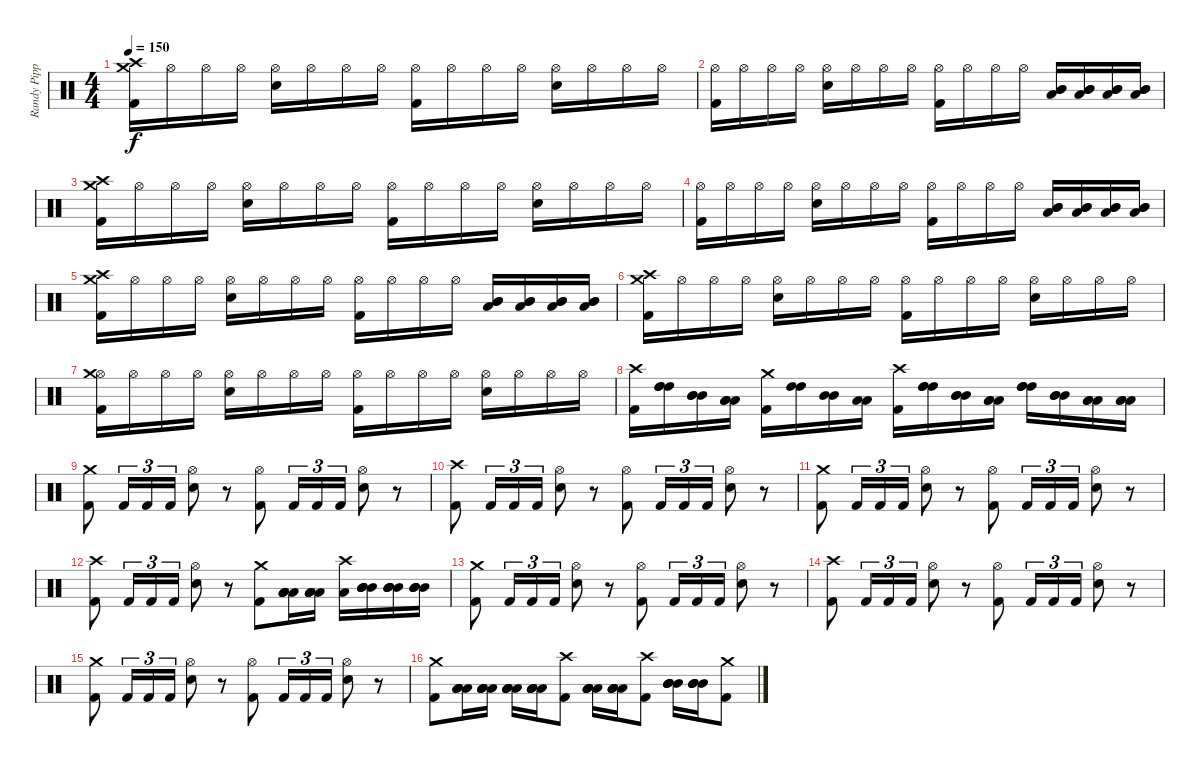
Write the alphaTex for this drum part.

\track ("Randy Pipper" "Randy Pipp") {instrument percussion}
\staff {score}
\articulation defaults
\ts (4 4)
\tempo 150
\clef neutral
\ks c
("Crash medium (hit)" "Kick (hit) 2" "Crash high (hit)").16{dy f} "Hi-Hat (open)".16 "Hi-Hat (open)".16 "Hi-Hat (open)".16 ("Hi-Hat (open)" "Snare (hit) 2").16 "Hi-Hat (open)".16 "Hi-Hat (open)".16 "Hi-Hat (open)".16 ("Hi-Hat (open)" "Kick (hit) 2").16 "Hi-Hat (open)".16 "Hi-Hat (open)".16 "Hi-Hat (open)".16 ("Hi-Hat (open)" "Snare (hit) 2").16 "Hi-Hat (open)".16 "Hi-Hat (open)".16 "Hi-Hat (open)".16 |
("Hi-Hat (open)" "Kick (hit) 2").16 "Hi-Hat (open)".16 "Hi-Hat (open)".16 "Hi-Hat (open)".16 ("Hi-Hat (open)" "Snare (hit) 2").16 "Hi-Hat (open)".16 "Hi-Hat (open)".16 "Hi-Hat (open)".16 ("Hi-Hat (open)" "Kick (hit) 2").16 "Hi-Hat (open)".16 "Hi-Hat (open)".16 "Hi-Hat (open)".16 ("Low Tom (hit)" "Mid Tom (hit)" "Mid Tom (hit)").16 ("Low Tom (hit)" "Mid Tom (hit)" "Mid Tom (hit)").16 ("Low Tom (hit)" "Mid Tom (hit)" "Mid Tom (hit)").16 ("Low Tom (hit)" "Mid Tom (hit)" "Mid Tom (hit)").16 |
("Crash medium (hit)" "Kick (hit) 2" "Crash high (hit)").16 "Hi-Hat (open)".16 "Hi-Hat (open)".16 "Hi-Hat (open)".16 ("Hi-Hat (open)" "Snare (hit) 2").16 "Hi-Hat (open)".16 "Hi-Hat (open)".16 "Hi-Hat (open)".16 ("Hi-Hat (open)" "Kick (hit) 2").16 "Hi-Hat (open)".16 "Hi-Hat (open)".16 "Hi-Hat (open)".16 ("Hi-Hat (open)" "Snare (hit) 2").16 "Hi-Hat (open)".16 "Hi-Hat (open)".16 "Hi-Hat (open)".16 |
("Hi-Hat (open)" "Kick (hit) 2").16 "Hi-Hat (open)".16 "Hi-Hat (open)".16 "Hi-Hat (open)".16 ("Hi-Hat (open)" "Snare (hit) 2").16 "Hi-Hat (open)".16 "Hi-Hat (open)".16 "Hi-Hat (open)".16 ("Hi-Hat (open)" "Kick (hit) 2").16 "Hi-Hat (open)".16 "Hi-Hat (open)".16 "Hi-Hat (open)".16 ("Low Tom (hit)" "Mid Tom (hit)" "Mid Tom (hit)").16 ("Low Tom (hit)" "Mid Tom (hit)" "Mid Tom (hit)").16 ("Low Tom (hit)" "Mid Tom (hit)" "Mid Tom (hit)").16 ("Low Tom (hit)" "Mid Tom (hit)" "Mid Tom (hit)").16 |
("Crash high (hit)" "Kick (hit) 2" "Crash medium (hit)").16 "Hi-Hat (open)".16 "Hi-Hat (open)".16 "Hi-Hat (open)".16 ("Hi-Hat (open)" "Snare (hit) 2").16 "Hi-Hat (open)".16 "Hi-Hat (open)".16 "Hi-Hat (open)".16 ("Hi-Hat (open)" "Kick (hit) 2").16 "Hi-Hat (open)".16 "Hi-Hat (open)".16 "Hi-Hat (open)".16 ("Low Tom (hit)" "Mid Tom (hit)" "Mid Tom (hit)").16 ("Low Tom (hit)" "Mid Tom (hit)" "Mid Tom (hit)").16 ("Low Tom (hit)" "Mid Tom (hit)" "Mid Tom (hit)").16 ("Low Tom (hit)" "Mid Tom (hit)" "Mid Tom (hit)").16 |
("Crash medium (hit)" "Kick (hit) 2" "Crash high (hit)").16 "Hi-Hat (open)".16 "Hi-Hat (open)".16 "Hi-Hat (open)".16 ("Hi-Hat (open)" "Snare (hit) 2").16 "Hi-Hat (open)".16 "Hi-Hat (open)".16 "Hi-Hat (open)".16 ("Hi-Hat (open)" "Kick (hit) 2").16 "Hi-Hat (open)".16 "Hi-Hat (open)".16 "Hi-Hat (open)".16 ("Hi-Hat (open)" "Snare (hit) 2").16 "Hi-Hat (open)".16 "Hi-Hat (open)".16 "Hi-Hat (open)".16 |
("Hi-Hat (open)" "Kick (hit) 2" "Crash medium (hit)").16 "Hi-Hat (open)".16 "Hi-Hat (open)".16 "Hi-Hat (open)".16 ("Hi-Hat (open)" "Snare (hit) 2").16 "Hi-Hat (open)".16 "Hi-Hat (open)".16 "Hi-Hat (open)".16 ("Hi-Hat (open)" "Kick (hit) 2").16 "Hi-Hat (open)".16 "Hi-Hat (open)".16 "Hi-Hat (open)".16 ("Hi-Hat (open)" "Snare (hit) 2").16 "Hi-Hat (open)".16 "Hi-Hat (open)".16 "Hi-Hat (open)".16 |
("Kick (hit) 2" "Crash high (hit)").16 ("High Tom (hit)" "High Tom (hit)" "High Tom (hit)").16 ("Mid Tom (hit)" "Mid Tom (hit)" "Mid Tom (hit)").16 ("Low Tom (hit)" "Low Tom (hit)" "Low Tom (hit)").16 ("Kick (hit) 2" "Crash medium (hit)").16 ("High Tom (hit)" "High Tom (hit)").16 ("Mid Tom (hit)" "Mid Tom (hit)").16 ("Low Tom (hit)" "Low Tom (hit)").16 ("Kick (hit) 2" "Crash high (hit)").16 ("High Tom (hit)" "High Tom (hit)" "High Tom (hit)").16 ("Mid Tom (hit)" "Mid Tom (hit)" "Mid Tom (hit)").16 ("Low Tom (hit)" "Low Tom (hit)" "Low Tom (hit)").16 ("High Tom (hit)" "High Tom (hit)" "High Tom (hit)").16 ("Mid Tom (hit)" "Mid Tom (hit)" "Mid Tom (hit)").16 ("Low Tom (hit)" "Low Tom (hit)" "Low Tom (hit)").16 ("Low Tom (hit)" "Low Tom (hit)" "Low Tom (hit)").16 |
("Kick (hit) 2" "Crash medium (hit)").8 "Kick (hit) 2".16{tu (3 2)} "Kick (hit) 2".16{tu (3 2)} "Kick (hit) 2".16{tu (3 2)} ("Snare (hit) 2" "Hi-Hat (open)").8 r.8 ("Kick (hit) 2" "Hi-Hat (open)").8 "Kick (hit) 2".16{tu (3 2)} "Kick (hit) 2".16{tu (3 2)} "Kick (hit) 2".16{tu (3 2)} ("Snare (hit) 2" "Hi-Hat (open)").8 r.8 |
("Kick (hit) 2" "Crash high (hit)").8 "Kick (hit) 2".16{tu (3 2)} "Kick (hit) 2".16{tu (3 2)} "Kick (hit) 2".16{tu (3 2)} ("Snare (hit) 2" "Hi-Hat (open)").8 r.8 ("Kick (hit) 2" "Hi-Hat (open)").8 "Kick (hit) 2".16{tu (3 2)} "Kick (hit) 2".16{tu (3 2)} "Kick (hit) 2".16{tu (3 2)} ("Snare (hit) 2" "Hi-Hat (open)").8 r.8 |
("Kick (hit) 2" "Crash medium (hit)").8 "Kick (hit) 2".16{tu (3 2)} "Kick (hit) 2".16{tu (3 2)} "Kick (hit) 2".16{tu (3 2)} ("Snare (hit) 2" "Hi-Hat (open)").8 r.8 ("Kick (hit) 2" "Hi-Hat (open)").8 "Kick (hit) 2".16{tu (3 2)} "Kick (hit) 2".16{tu (3 2)} "Kick (hit) 2".16{tu (3 2)} ("Snare (hit) 2" "Hi-Hat (open)").8 r.8 |
("Kick (hit) 2" "Crash high (hit)").8 "Kick (hit) 2".16{tu (3 2)} "Kick (hit) 2".16{tu (3 2)} "Kick (hit) 2".16{tu (3 2)} ("Snare (hit) 2" "Hi-Hat (open)").8 r.8 ("Kick (hit) 2" "Crash medium (hit)").8 ("Low Tom (hit)" "Low Tom (hit)" "Low Tom (hit)" "Low Tom (hit)").16 ("Low Tom (hit)" "Low Tom (hit)" "Low Tom (hit)" "Low Tom (hit)").16 ("Low Tom (hit)" "Crash high (hit)").16 ("Mid Tom (hit)" "Mid Tom (hit)" "Mid Tom (hit)" "Mid Tom (hit)").16 ("Mid Tom (hit)" "Mid Tom (hit)" "Mid Tom (hit)" "Mid Tom (hit)").16 ("Mid Tom (hit)" "Mid Tom (hit)" "Mid Tom (hit)" "Mid Tom (hit)").16 |
("Kick (hit) 2" "Crash medium (hit)").8 "Kick (hit) 2".16{tu (3 2)} "Kick (hit) 2".16{tu (3 2)} "Kick (hit) 2".16{tu (3 2)} ("Snare (hit) 2" "Hi-Hat (open)").8 r.8 ("Kick (hit) 2" "Hi-Hat (open)").8 "Kick (hit) 2".16{tu (3 2)} "Kick (hit) 2".16{tu (3 2)} "Kick (hit) 2".16{tu (3 2)} ("Snare (hit) 2" "Hi-Hat (open)").8 r.8 |
("Kick (hit) 2" "Crash high (hit)").8 "Kick (hit) 2".16{tu (3 2)} "Kick (hit) 2".16{tu (3 2)} "Kick (hit) 2".16{tu (3 2)} ("Snare (hit) 2" "Hi-Hat (open)").8 r.8 ("Kick (hit) 2" "Hi-Hat (open)").8 "Kick (hit) 2".16{tu (3 2)} "Kick (hit) 2".16{tu (3 2)} "Kick (hit) 2".16{tu (3 2)} ("Snare (hit) 2" "Hi-Hat (open)").8 r.8 |
("Kick (hit) 2" "Crash medium (hit)").8 "Kick (hit) 2".16{tu (3 2)} "Kick (hit) 2".16{tu (3 2)} "Kick (hit) 2".16{tu (3 2)} ("Snare (hit) 2" "Hi-Hat (open)").8 r.8 ("Kick (hit) 2" "Hi-Hat (open)").8 "Kick (hit) 2".16{tu (3 2)} "Kick (hit) 2".16{tu (3 2)} "Kick (hit) 2".16{tu (3 2)} ("Snare (hit) 2" "Hi-Hat (open)").8 r.8 |
("Kick (hit) 2" "Crash medium (hit)").8 ("Low Tom (hit)" "Low Tom (hit)" "Low Tom (hit)" "Low Tom (hit)").16 ("Low Tom (hit)" "Low Tom (hit)" "Low Tom (hit)" "Low Tom (hit)").16 ("Low Tom (hit)" "Low Tom (hit)" "Low Tom (hit)" "Low Tom (hit)").16 ("Low Tom (hit)" "Low Tom (hit)" "Low Tom (hit)" "Low Tom (hit)").16 ("Kick (hit) 2" "Crash high (hit)").8 ("Low Tom (hit)" "Low Tom (hit)" "Low Tom (hit)" "Low Tom (hit)").16 ("Low Tom (hit)" "Low Tom (hit)" "Low Tom (hit)" "Low Tom (hit)").16 ("Kick (hit) 2" "Crash high (hit)").8 ("Mid Tom (hit)" "Mid Tom (hit)" "Mid Tom (hit)" "Mid Tom (hit)").16 ("Mid Tom (hit)" "Mid Tom (hit)" "Mid Tom (hit)" "Mid Tom (hit)").16 ("Kick (hit) 2" "Crash medium (hit)").8
